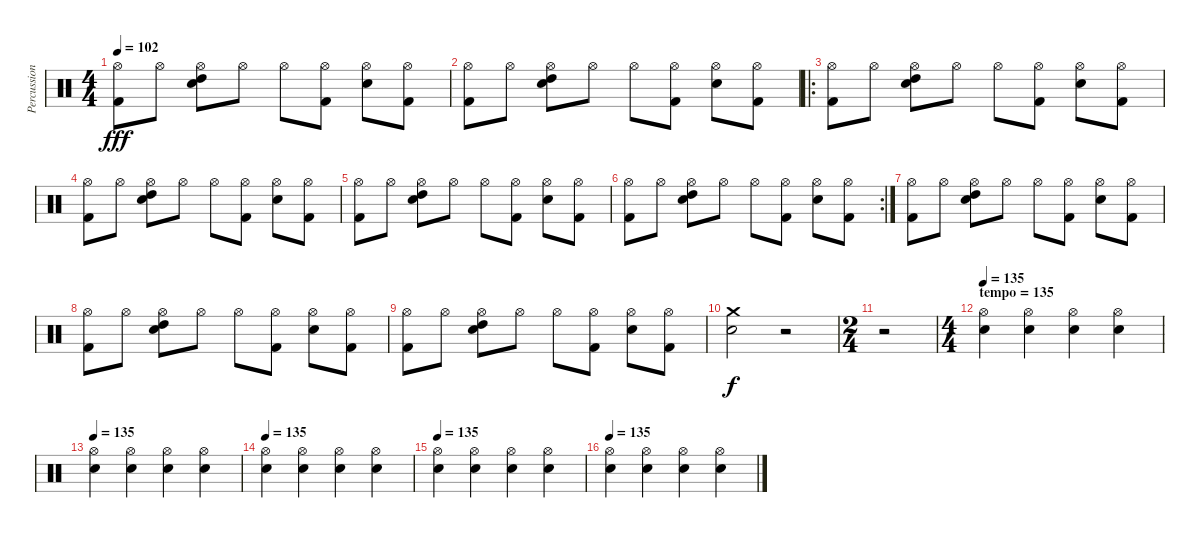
\track ("Percussions" "Percussion") {instrument percussion}
\staff {score}
\articulation defaults
\ts (4 4)
\tempo 102
\clef neutral
\ks c
("Hi-Hat (open)" "Kick (hit) 2").8{dy fff} "Hi-Hat (open)".8 ("Hi-Hat (open)" "High Tom (hit)" "Electric Snare (hit)").8 "Hi-Hat (open)".8 "Hi-Hat (open)".8 ("Hi-Hat (open)" "Kick (hit) 2").8 ("Hi-Hat (open)" "Electric Snare (hit)").8 ("Hi-Hat (open)" "Kick (hit) 2").8 |
("Hi-Hat (open)" "Kick (hit) 2").8 "Hi-Hat (open)".8 ("Hi-Hat (open)" "High Tom (hit)" "Electric Snare (hit)").8 "Hi-Hat (open)".8 "Hi-Hat (open)".8 ("Hi-Hat (open)" "Kick (hit) 2").8 ("Hi-Hat (open)" "Electric Snare (hit)").8 ("Hi-Hat (open)" "Kick (hit) 2").8 |
\ro
("Hi-Hat (open)" "Kick (hit) 2").8 "Hi-Hat (open)".8 ("Hi-Hat (open)" "High Tom (hit)" "Electric Snare (hit)").8 "Hi-Hat (open)".8 "Hi-Hat (open)".8 ("Hi-Hat (open)" "Kick (hit) 2").8 ("Hi-Hat (open)" "Electric Snare (hit)").8 ("Hi-Hat (open)" "Kick (hit) 2").8 |
("Hi-Hat (open)" "Kick (hit) 2").8 "Hi-Hat (open)".8 ("Hi-Hat (open)" "High Tom (hit)" "Electric Snare (hit)").8 "Hi-Hat (open)".8 "Hi-Hat (open)".8 ("Hi-Hat (open)" "Kick (hit) 2").8 ("Hi-Hat (open)" "Electric Snare (hit)").8 ("Hi-Hat (open)" "Kick (hit) 2").8 |
("Hi-Hat (open)" "Kick (hit) 2").8 "Hi-Hat (open)".8 ("Hi-Hat (open)" "High Tom (hit)" "Electric Snare (hit)").8 "Hi-Hat (open)".8 "Hi-Hat (open)".8 ("Hi-Hat (open)" "Kick (hit) 2").8 ("Hi-Hat (open)" "Electric Snare (hit)").8 ("Hi-Hat (open)" "Kick (hit) 2").8 |
\rc 2
("Hi-Hat (open)" "Kick (hit) 2").8 "Hi-Hat (open)".8 ("Hi-Hat (open)" "High Tom (hit)" "Electric Snare (hit)").8 "Hi-Hat (open)".8 "Hi-Hat (open)".8 ("Hi-Hat (open)" "Kick (hit) 2").8 ("Hi-Hat (open)" "Electric Snare (hit)").8 ("Hi-Hat (open)" "Kick (hit) 2").8 |
("Hi-Hat (open)" "Kick (hit) 2").8 "Hi-Hat (open)".8 ("Hi-Hat (open)" "High Tom (hit)" "Electric Snare (hit)").8 "Hi-Hat (open)".8 "Hi-Hat (open)".8 ("Hi-Hat (open)" "Kick (hit) 2").8 ("Hi-Hat (open)" "Electric Snare (hit)").8 ("Hi-Hat (open)" "Kick (hit) 2").8 |
("Hi-Hat (open)" "Kick (hit) 2").8 "Hi-Hat (open)".8 ("Hi-Hat (open)" "High Tom (hit)" "Electric Snare (hit)").8 "Hi-Hat (open)".8 "Hi-Hat (open)".8 ("Hi-Hat (open)" "Kick (hit) 2").8 ("Hi-Hat (open)" "Electric Snare (hit)").8 ("Hi-Hat (open)" "Kick (hit) 2").8 |
("Hi-Hat (open)" "Kick (hit) 2").8 "Hi-Hat (open)".8 ("Hi-Hat (open)" "High Tom (hit)" "Electric Snare (hit)").8 "Hi-Hat (open)".8 "Hi-Hat (open)".8 ("Hi-Hat (open)" "Kick (hit) 2").8 ("Hi-Hat (open)" "Electric Snare (hit)").8 ("Hi-Hat (open)" "Kick (hit) 2").8 |
("Crash medium (hit)" "Electric Snare (hit)").2{dy f} r.2 |
\ts (2 4)
r.2 |
\ts (4 4)
\section ("" "tempo = 135")
\tempo 135
("Hi-Hat (open)" "Electric Snare (hit)").4 ("Hi-Hat (open)" "Electric Snare (hit)").4 ("Hi-Hat (open)" "Electric Snare (hit)").4 ("Hi-Hat (open)" "Electric Snare (hit)").4 |
\tempo 135
("Hi-Hat (open)" "Electric Snare (hit)").4 ("Hi-Hat (open)" "Electric Snare (hit)").4 ("Hi-Hat (open)" "Electric Snare (hit)").4 ("Hi-Hat (open)" "Electric Snare (hit)").4 |
\tempo 135
("Hi-Hat (open)" "Electric Snare (hit)").4 ("Hi-Hat (open)" "Electric Snare (hit)").4 ("Hi-Hat (open)" "Electric Snare (hit)").4 ("Hi-Hat (open)" "Electric Snare (hit)").4 |
\tempo 135
("Hi-Hat (open)" "Electric Snare (hit)").4 ("Hi-Hat (open)" "Electric Snare (hit)").4 ("Hi-Hat (open)" "Electric Snare (hit)").4 ("Hi-Hat (open)" "Electric Snare (hit)").4 |
\tempo 135
("Hi-Hat (open)" "Electric Snare (hit)").4 ("Hi-Hat (open)" "Electric Snare (hit)").4 ("Hi-Hat (open)" "Electric Snare (hit)").4 ("Hi-Hat (open)" "Electric Snare (hit)").4
